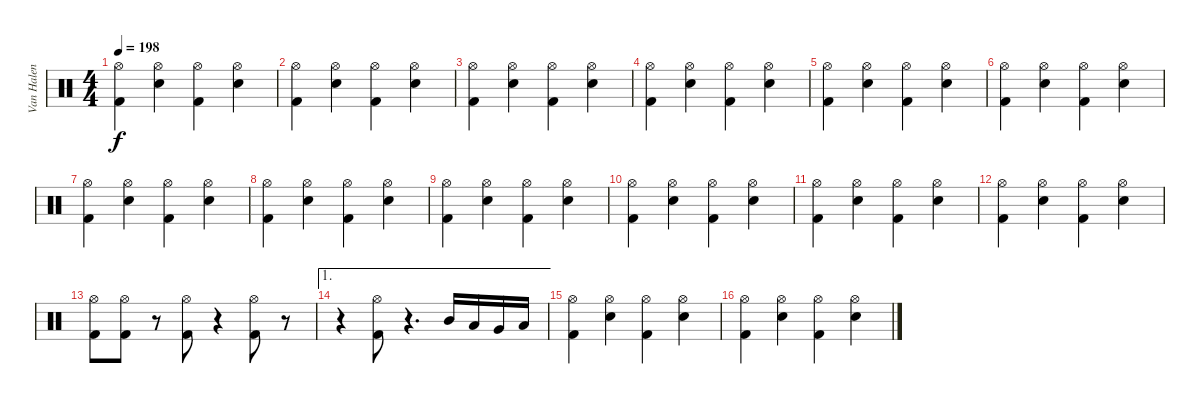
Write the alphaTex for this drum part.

\track ("Van Halen" "Van Halen") {instrument percussion}
\staff {score}
\articulation defaults
\ts (4 4)
\tempo 198
\clef neutral
\ks c
("Kick (hit) 2" "Hi-Hat (open)").4{dy f} ("Snare (hit) 2" "Hi-Hat (open)").4 ("Kick (hit) 2" "Hi-Hat (open)").4 ("Snare (hit) 2" "Hi-Hat (open)").4 |
("Kick (hit) 2" "Hi-Hat (open)").4 ("Snare (hit) 2" "Hi-Hat (open)").4 ("Kick (hit) 2" "Hi-Hat (open)").4 ("Snare (hit) 2" "Hi-Hat (open)").4 |
("Kick (hit) 2" "Hi-Hat (open)").4 ("Snare (hit) 2" "Hi-Hat (open)").4 ("Kick (hit) 2" "Hi-Hat (open)").4 ("Snare (hit) 2" "Hi-Hat (open)").4 |
("Kick (hit) 2" "Hi-Hat (open)").4 ("Snare (hit) 2" "Hi-Hat (open)").4 ("Kick (hit) 2" "Hi-Hat (open)").4 ("Snare (hit) 2" "Hi-Hat (open)").4 |
("Kick (hit) 2" "Hi-Hat (open)").4 ("Snare (hit) 2" "Hi-Hat (open)").4 ("Kick (hit) 2" "Hi-Hat (open)").4 ("Snare (hit) 2" "Hi-Hat (open)").4 |
("Kick (hit) 2" "Hi-Hat (open)").4 ("Snare (hit) 2" "Hi-Hat (open)").4 ("Kick (hit) 2" "Hi-Hat (open)").4 ("Snare (hit) 2" "Hi-Hat (open)").4 |
("Kick (hit) 2" "Hi-Hat (open)").4 ("Snare (hit) 2" "Hi-Hat (open)").4 ("Kick (hit) 2" "Hi-Hat (open)").4 ("Snare (hit) 2" "Hi-Hat (open)").4 |
("Kick (hit) 2" "Hi-Hat (open)").4 ("Snare (hit) 2" "Hi-Hat (open)").4 ("Kick (hit) 2" "Hi-Hat (open)").4 ("Snare (hit) 2" "Hi-Hat (open)").4 |
("Kick (hit) 2" "Hi-Hat (open)").4 ("Snare (hit) 2" "Hi-Hat (open)").4 ("Kick (hit) 2" "Hi-Hat (open)").4 ("Snare (hit) 2" "Hi-Hat (open)").4 |
("Kick (hit) 2" "Hi-Hat (open)").4 ("Snare (hit) 2" "Hi-Hat (open)").4 ("Kick (hit) 2" "Hi-Hat (open)").4 ("Snare (hit) 2" "Hi-Hat (open)").4 |
("Kick (hit) 2" "Hi-Hat (open)").4 ("Snare (hit) 2" "Hi-Hat (open)").4 ("Kick (hit) 2" "Hi-Hat (open)").4 ("Snare (hit) 2" "Hi-Hat (open)").4 |
("Kick (hit) 2" "Hi-Hat (open)").4 ("Snare (hit) 2" "Hi-Hat (open)").4 ("Kick (hit) 2" "Hi-Hat (open)").4 ("Snare (hit) 2" "Hi-Hat (open)").4 |
("Kick (hit) 2" "Hi-Hat (open)").8 ("Kick (hit) 2" "Hi-Hat (open)").8 r.8 ("Kick (hit) 2" "Hi-Hat (open)").8 r.4 ("Kick (hit) 2" "Hi-Hat (open)").8 r.8 |
\ae 1
r.4 ("Kick (hit) 2" "Hi-Hat (open)").8 r.4{d} "Mid Tom (hit)".16 "Low Tom (hit)".16 "Very Low Tom (hit)".16 "Low Floor Tom (hit)".16 |
("Kick (hit) 2" "Hi-Hat (open)").4 ("Snare (hit) 2" "Hi-Hat (open)").4 ("Kick (hit) 2" "Hi-Hat (open)").4 ("Snare (hit) 2" "Hi-Hat (open)").4 |
("Kick (hit) 2" "Hi-Hat (open)").4 ("Snare (hit) 2" "Hi-Hat (open)").4 ("Kick (hit) 2" "Hi-Hat (open)").4 ("Snare (hit) 2" "Hi-Hat (open)").4
